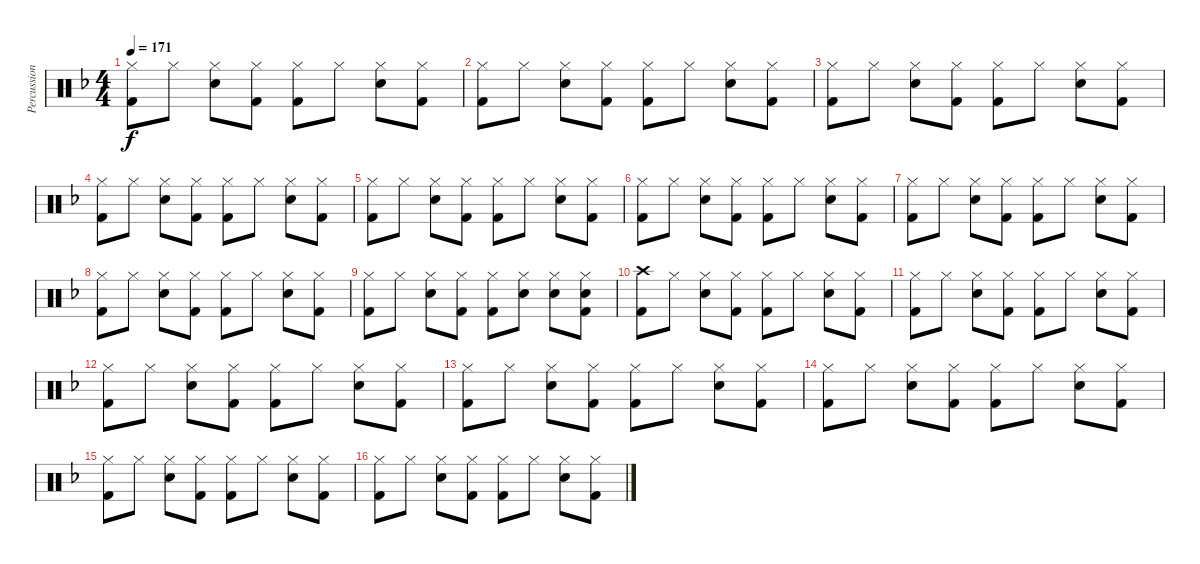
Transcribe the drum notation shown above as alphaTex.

\track ("Percussion" "Percussion") {instrument percussion}
\staff {score}
\articulation defaults
\ts (4 4)
\tempo 171
\clef neutral
\ks f
("Hi-Hat (closed)" "Kick (hit) 2").8{dy f} "Hi-Hat (closed)".8 ("Hi-Hat (closed)" "Snare (hit) 2").8 ("Hi-Hat (closed)" "Kick (hit) 2").8 ("Hi-Hat (closed)" "Kick (hit) 2").8 "Hi-Hat (closed)".8 ("Hi-Hat (closed)" "Snare (hit) 2").8 ("Hi-Hat (closed)" "Kick (hit) 2").8 |
("Hi-Hat (closed)" "Kick (hit) 2").8 "Hi-Hat (closed)".8 ("Hi-Hat (closed)" "Snare (hit) 2").8 ("Hi-Hat (closed)" "Kick (hit) 2").8 ("Hi-Hat (closed)" "Kick (hit) 2").8 "Hi-Hat (closed)".8 ("Hi-Hat (closed)" "Snare (hit) 2").8 ("Hi-Hat (closed)" "Kick (hit) 2").8 |
("Hi-Hat (closed)" "Kick (hit) 2").8 "Hi-Hat (closed)".8 ("Hi-Hat (closed)" "Snare (hit) 2").8 ("Hi-Hat (closed)" "Kick (hit) 2").8 ("Hi-Hat (closed)" "Kick (hit) 2").8 "Hi-Hat (closed)".8 ("Hi-Hat (closed)" "Snare (hit) 2").8 ("Hi-Hat (closed)" "Kick (hit) 2").8 |
("Hi-Hat (closed)" "Kick (hit) 2").8 "Hi-Hat (closed)".8 ("Hi-Hat (closed)" "Snare (hit) 2").8 ("Hi-Hat (closed)" "Kick (hit) 2").8 ("Hi-Hat (closed)" "Kick (hit) 2").8 "Hi-Hat (closed)".8 ("Hi-Hat (closed)" "Snare (hit) 2").8 ("Hi-Hat (closed)" "Kick (hit) 2").8 |
("Hi-Hat (closed)" "Kick (hit) 2").8 "Hi-Hat (closed)".8 ("Hi-Hat (closed)" "Snare (hit) 2").8 ("Hi-Hat (closed)" "Kick (hit) 2").8 ("Hi-Hat (closed)" "Kick (hit) 2").8 "Hi-Hat (closed)".8 ("Hi-Hat (closed)" "Snare (hit) 2").8 ("Hi-Hat (closed)" "Kick (hit) 2").8 |
("Hi-Hat (closed)" "Kick (hit) 2").8 "Hi-Hat (closed)".8 ("Hi-Hat (closed)" "Snare (hit) 2").8 ("Hi-Hat (closed)" "Kick (hit) 2").8 ("Hi-Hat (closed)" "Kick (hit) 2").8 "Hi-Hat (closed)".8 ("Hi-Hat (closed)" "Snare (hit) 2").8 ("Hi-Hat (closed)" "Kick (hit) 2").8 |
("Hi-Hat (closed)" "Kick (hit) 2").8 "Hi-Hat (closed)".8 ("Hi-Hat (closed)" "Snare (hit) 2").8 ("Hi-Hat (closed)" "Kick (hit) 2").8 ("Hi-Hat (closed)" "Kick (hit) 2").8 "Hi-Hat (closed)".8 ("Hi-Hat (closed)" "Snare (hit) 2").8 ("Hi-Hat (closed)" "Kick (hit) 2").8 |
("Hi-Hat (closed)" "Kick (hit) 2").8 "Hi-Hat (closed)".8 ("Hi-Hat (closed)" "Snare (hit) 2").8 ("Hi-Hat (closed)" "Kick (hit) 2").8 ("Hi-Hat (closed)" "Kick (hit) 2").8 "Hi-Hat (closed)".8 ("Hi-Hat (closed)" "Snare (hit) 2").8 ("Hi-Hat (closed)" "Kick (hit) 2").8 |
("Hi-Hat (closed)" "Kick (hit) 2").8 "Hi-Hat (closed)".8 ("Hi-Hat (closed)" "Snare (hit) 2").8 ("Hi-Hat (closed)" "Kick (hit) 2").8 ("Hi-Hat (closed)" "Kick (hit) 2").8 ("Hi-Hat (closed)" "Snare (hit) 2").8 ("Hi-Hat (closed)" "Snare (hit) 2").8 ("Hi-Hat (closed)" "Snare (hit) 2" "Kick (hit) 2").8 |
("Crash high (hit)" "Kick (hit) 2").8 "Hi-Hat (closed)".8 ("Hi-Hat (closed)" "Snare (hit) 2").8 ("Hi-Hat (closed)" "Kick (hit) 2").8 ("Hi-Hat (closed)" "Kick (hit) 2").8 "Hi-Hat (closed)".8 ("Hi-Hat (closed)" "Snare (hit) 2").8 ("Hi-Hat (closed)" "Kick (hit) 2").8 |
("Hi-Hat (closed)" "Kick (hit) 2").8 "Hi-Hat (closed)".8 ("Hi-Hat (closed)" "Snare (hit) 2").8 ("Hi-Hat (closed)" "Kick (hit) 2").8 ("Hi-Hat (closed)" "Kick (hit) 2").8 "Hi-Hat (closed)".8 ("Hi-Hat (closed)" "Snare (hit) 2").8 ("Hi-Hat (closed)" "Kick (hit) 2").8 |
("Hi-Hat (closed)" "Kick (hit) 2").8 "Hi-Hat (closed)".8 ("Hi-Hat (closed)" "Snare (hit) 2").8 ("Hi-Hat (closed)" "Kick (hit) 2").8 ("Hi-Hat (closed)" "Kick (hit) 2").8 "Hi-Hat (closed)".8 ("Hi-Hat (closed)" "Snare (hit) 2").8 ("Hi-Hat (closed)" "Kick (hit) 2").8 |
("Hi-Hat (closed)" "Kick (hit) 2").8 "Hi-Hat (closed)".8 ("Hi-Hat (closed)" "Snare (hit) 2").8 ("Hi-Hat (closed)" "Kick (hit) 2").8 ("Hi-Hat (closed)" "Kick (hit) 2").8 "Hi-Hat (closed)".8 ("Hi-Hat (closed)" "Snare (hit) 2").8 ("Hi-Hat (closed)" "Kick (hit) 2").8 |
("Hi-Hat (closed)" "Kick (hit) 2").8 "Hi-Hat (closed)".8 ("Hi-Hat (closed)" "Snare (hit) 2").8 ("Hi-Hat (closed)" "Kick (hit) 2").8 ("Hi-Hat (closed)" "Kick (hit) 2").8 "Hi-Hat (closed)".8 ("Hi-Hat (closed)" "Snare (hit) 2").8 ("Hi-Hat (closed)" "Kick (hit) 2").8 |
("Hi-Hat (closed)" "Kick (hit) 2").8 "Hi-Hat (closed)".8 ("Hi-Hat (closed)" "Snare (hit) 2").8 ("Hi-Hat (closed)" "Kick (hit) 2").8 ("Hi-Hat (closed)" "Kick (hit) 2").8 "Hi-Hat (closed)".8 ("Hi-Hat (closed)" "Snare (hit) 2").8 ("Hi-Hat (closed)" "Kick (hit) 2").8 |
("Hi-Hat (closed)" "Kick (hit) 2").8 "Hi-Hat (closed)".8 ("Hi-Hat (closed)" "Snare (hit) 2").8 ("Hi-Hat (closed)" "Kick (hit) 2").8 ("Hi-Hat (closed)" "Kick (hit) 2").8 "Hi-Hat (closed)".8 ("Hi-Hat (closed)" "Snare (hit) 2").8 ("Hi-Hat (closed)" "Kick (hit) 2").8
